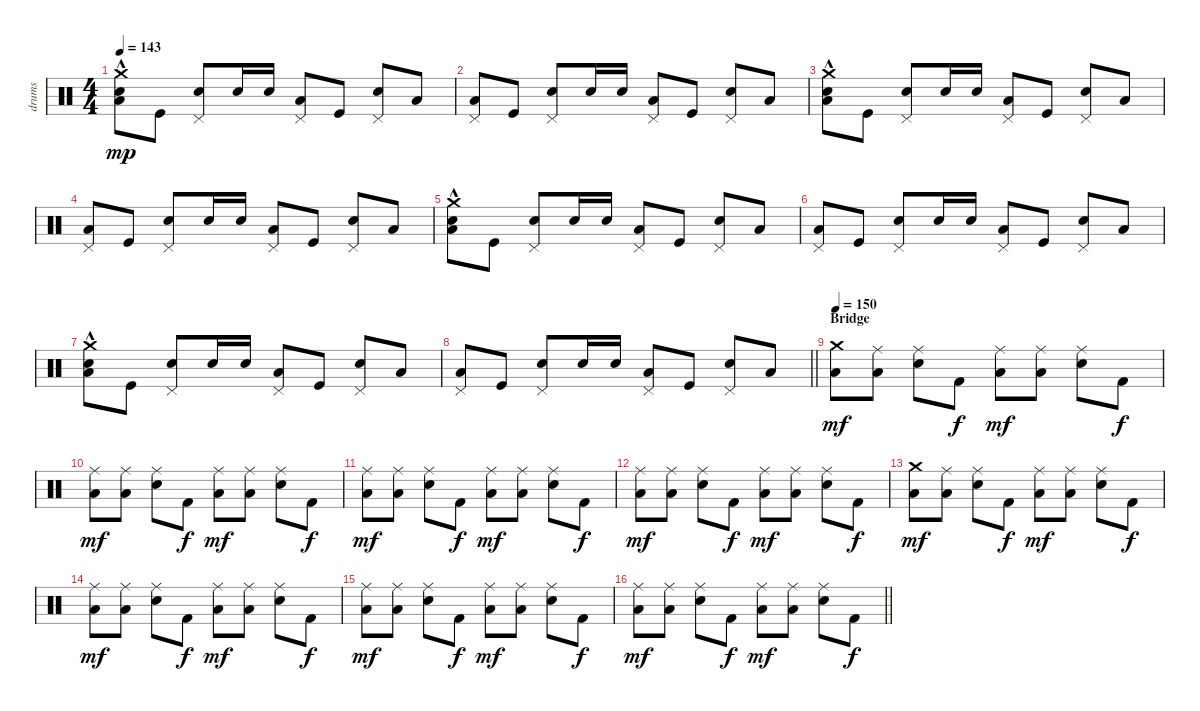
\track ("drums" "drums") {instrument percussion}
\staff {score}
\articulation defaults
\ts (4 4)
\tempo 143
\clef neutral
\ks c
("Crash medium (hit)"{hac} "Snare (hit) 2" "Low Floor Tom (hit)").8{dy mp} "Kick (hit)".8 ("Pedal Hi-Hat (hit)" "Snare (hit) 2").8 "Snare (hit) 2".16 "Snare (hit) 2".16 ("Pedal Hi-Hat (hit)" "Low Floor Tom (hit)").8 "Kick (hit)".8 ("Pedal Hi-Hat (hit)" "Snare (hit) 2").8 "Low Floor Tom (hit)".8 |
("Pedal Hi-Hat (hit)" "Low Floor Tom (hit)").8 "Kick (hit)".8 ("Pedal Hi-Hat (hit)" "Snare (hit) 2").8 "Snare (hit) 2".16 "Snare (hit) 2".16 ("Pedal Hi-Hat (hit)" "Low Floor Tom (hit)").8 "Kick (hit)".8 ("Pedal Hi-Hat (hit)" "Snare (hit) 2").8 "Low Floor Tom (hit)".8 |
("Crash medium (hit)"{hac} "Snare (hit) 2" "Low Floor Tom (hit)").8 "Kick (hit)".8 ("Pedal Hi-Hat (hit)" "Snare (hit) 2").8 "Snare (hit) 2".16 "Snare (hit) 2".16 ("Pedal Hi-Hat (hit)" "Low Floor Tom (hit)").8 "Kick (hit)".8 ("Pedal Hi-Hat (hit)" "Snare (hit) 2").8 "Low Floor Tom (hit)".8 |
("Pedal Hi-Hat (hit)" "Low Floor Tom (hit)").8 "Kick (hit)".8 ("Pedal Hi-Hat (hit)" "Snare (hit) 2").8 "Snare (hit) 2".16 "Snare (hit) 2".16 ("Pedal Hi-Hat (hit)" "Low Floor Tom (hit)").8 "Kick (hit)".8 ("Pedal Hi-Hat (hit)" "Snare (hit) 2").8 "Low Floor Tom (hit)".8 |
("Crash medium (hit)"{hac} "Snare (hit) 2" "Low Floor Tom (hit)").8 "Kick (hit)".8 ("Pedal Hi-Hat (hit)" "Snare (hit) 2").8 "Snare (hit) 2".16 "Snare (hit) 2".16 ("Pedal Hi-Hat (hit)" "Low Floor Tom (hit)").8 "Kick (hit)".8 ("Pedal Hi-Hat (hit)" "Snare (hit) 2").8 "Low Floor Tom (hit)".8 |
("Pedal Hi-Hat (hit)" "Low Floor Tom (hit)").8 "Kick (hit)".8 ("Pedal Hi-Hat (hit)" "Snare (hit) 2").8 "Snare (hit) 2".16 "Snare (hit) 2".16 ("Pedal Hi-Hat (hit)" "Low Floor Tom (hit)").8 "Kick (hit)".8 ("Pedal Hi-Hat (hit)" "Snare (hit) 2").8 "Low Floor Tom (hit)".8 |
("Crash medium (hit)"{hac} "Snare (hit) 2" "Low Floor Tom (hit)").8 "Kick (hit)".8 ("Pedal Hi-Hat (hit)" "Snare (hit) 2").8 "Snare (hit) 2".16 "Snare (hit) 2".16 ("Pedal Hi-Hat (hit)" "Low Floor Tom (hit)").8 "Kick (hit)".8 ("Pedal Hi-Hat (hit)" "Snare (hit) 2").8 "Low Floor Tom (hit)".8 |
\barLineRight lightlight
("Pedal Hi-Hat (hit)" "Low Floor Tom (hit)").8 "Kick (hit)".8 ("Pedal Hi-Hat (hit)" "Snare (hit) 2").8 "Snare (hit) 2".16 "Snare (hit) 2".16 ("Pedal Hi-Hat (hit)" "Low Floor Tom (hit)").8 "Kick (hit)".8 ("Pedal Hi-Hat (hit)" "Snare (hit) 2").8 "Low Floor Tom (hit)".8 |
\section ("" "Bridge")
\tempo 150
("Crash medium (hit)" "Low Tom (hit)").8{dy mf} ("Ride (middle)" "Low Tom (hit)").8 ("Ride (middle)" "Snare (hit) 2").8 "Kick (hit) 2".8{dy f} ("Ride (middle)" "Low Tom (hit)").8{dy mf} ("Ride (middle)" "Low Tom (hit)").8 ("Ride (middle)" "Snare (hit) 2").8 "Kick (hit) 2".8{dy f} |
("Ride (middle)" "Low Tom (hit)").8{dy mf} ("Ride (middle)" "Low Tom (hit)").8 ("Ride (middle)" "Snare (hit) 2").8 "Kick (hit) 2".8{dy f} ("Ride (middle)" "Low Tom (hit)").8{dy mf} ("Ride (middle)" "Low Tom (hit)").8 ("Ride (middle)" "Snare (hit) 2").8 "Kick (hit) 2".8{dy f} |
("Ride (middle)" "Low Tom (hit)").8{dy mf} ("Ride (middle)" "Low Tom (hit)").8 ("Ride (middle)" "Snare (hit) 2").8 "Kick (hit) 2".8{dy f} ("Ride (middle)" "Low Tom (hit)").8{dy mf} ("Ride (middle)" "Low Tom (hit)").8 ("Ride (middle)" "Snare (hit) 2").8 "Kick (hit) 2".8{dy f} |
("Ride (middle)" "Low Tom (hit)").8{dy mf} ("Ride (middle)" "Low Tom (hit)").8 ("Ride (middle)" "Snare (hit) 2").8 "Kick (hit) 2".8{dy f} ("Ride (middle)" "Low Tom (hit)").8{dy mf} ("Ride (middle)" "Low Tom (hit)").8 ("Ride (middle)" "Snare (hit) 2").8 "Kick (hit) 2".8{dy f} |
("Crash medium (hit)" "Low Tom (hit)").8{dy mf} ("Ride (middle)" "Low Tom (hit)").8 ("Ride (middle)" "Snare (hit) 2").8 "Kick (hit) 2".8{dy f} ("Ride (middle)" "Low Tom (hit)").8{dy mf} ("Ride (middle)" "Low Tom (hit)").8 ("Ride (middle)" "Snare (hit) 2").8 "Kick (hit) 2".8{dy f} |
("Ride (middle)" "Low Tom (hit)").8{dy mf} ("Ride (middle)" "Low Tom (hit)").8 ("Ride (middle)" "Snare (hit) 2").8 "Kick (hit) 2".8{dy f} ("Ride (middle)" "Low Tom (hit)").8{dy mf} ("Ride (middle)" "Low Tom (hit)").8 ("Ride (middle)" "Snare (hit) 2").8 "Kick (hit) 2".8{dy f} |
("Ride (middle)" "Low Tom (hit)").8{dy mf} ("Ride (middle)" "Low Tom (hit)").8 ("Ride (middle)" "Snare (hit) 2").8 "Kick (hit) 2".8{dy f} ("Ride (middle)" "Low Tom (hit)").8{dy mf} ("Ride (middle)" "Low Tom (hit)").8 ("Ride (middle)" "Snare (hit) 2").8 "Kick (hit) 2".8{dy f} |
\barLineRight lightlight
("Ride (middle)" "Low Tom (hit)").8{dy mf} ("Ride (middle)" "Low Tom (hit)").8 ("Ride (middle)" "Snare (hit) 2").8 "Kick (hit) 2".8{dy f} ("Ride (middle)" "Low Tom (hit)").8{dy mf} ("Ride (middle)" "Low Tom (hit)").8 ("Ride (middle)" "Snare (hit) 2").8 "Kick (hit) 2".8{dy f}
